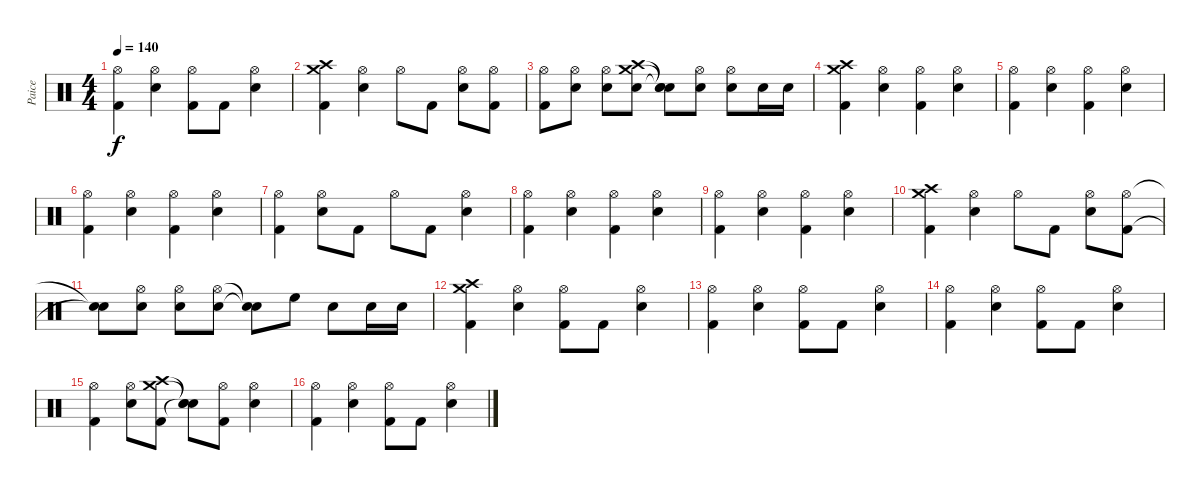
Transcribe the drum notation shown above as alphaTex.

\track ("Paice" "Paice") {instrument percussion}
\staff {score}
\articulation defaults
\ts (4 4)
\tempo 140
\clef neutral
\ks c
("Hi-Hat (open)" "Kick (hit) 2").4{dy f} ("Hi-Hat (open)" "Electric Snare (hit)").4 ("Hi-Hat (open)" "Kick (hit) 2").8 "Kick (hit) 2".8 ("Hi-Hat (open)" "Electric Snare (hit)").4 |
("Crash high (hit)" "Crash medium (hit)" "Kick (hit) 2").4 ("Hi-Hat (open)" "Electric Snare (hit)").4 "Hi-Hat (open)".8 "Kick (hit) 2".8 ("Hi-Hat (open)" "Electric Snare (hit)").8 ("Hi-Hat (open)" "Kick (hit) 2").8 |
("Hi-Hat (open)" "Kick (hit) 2").8 ("Hi-Hat (open)" "Electric Snare (hit)").8 ("Hi-Hat (open)" "Electric Snare (hit)").8 ("Crash high (hit)" "Crash medium (hit)" "Electric Snare (hit)").8 ("Snare (hit)"{t} "Snare (hit)"{t} "Snare (hit)"{t}).8 ("Hi-Hat (open)" "Electric Snare (hit)").8 ("Hi-Hat (open)" "Electric Snare (hit)").8 "Electric Snare (hit)".16 "Electric Snare (hit)".16 |
("Crash high (hit)" "Crash medium (hit)" "Kick (hit) 2").4 ("Hi-Hat (open)" "Electric Snare (hit)").4 ("Hi-Hat (open)" "Kick (hit) 2").4 ("Hi-Hat (open)" "Electric Snare (hit)").4 |
("Hi-Hat (open)" "Kick (hit) 2").4 ("Hi-Hat (open)" "Electric Snare (hit)").4 ("Hi-Hat (open)" "Kick (hit) 2").4 ("Hi-Hat (open)" "Electric Snare (hit)").4 |
("Hi-Hat (open)" "Kick (hit) 2").4 ("Hi-Hat (open)" "Electric Snare (hit)").4 ("Hi-Hat (open)" "Kick (hit) 2").4 ("Hi-Hat (open)" "Electric Snare (hit)").4 |
("Hi-Hat (open)" "Kick (hit) 2").4 ("Hi-Hat (open)" "Electric Snare (hit)").8 "Kick (hit) 2".8 "Hi-Hat (open)".8 "Kick (hit) 2".8 ("Hi-Hat (open)" "Electric Snare (hit)").4 |
("Hi-Hat (open)" "Kick (hit) 2").4 ("Hi-Hat (open)" "Electric Snare (hit)").4 ("Hi-Hat (open)" "Kick (hit) 2").4 ("Hi-Hat (open)" "Electric Snare (hit)").4 |
("Hi-Hat (open)" "Kick (hit) 2").4 ("Hi-Hat (open)" "Electric Snare (hit)").4 ("Hi-Hat (open)" "Kick (hit) 2").4 ("Hi-Hat (open)" "Electric Snare (hit)").4 |
("Crash high (hit)" "Crash medium (hit)" "Kick (hit) 2").4 ("Hi-Hat (open)" "Electric Snare (hit)").4 "Hi-Hat (open)".8 "Kick (hit) 2".8 ("Hi-Hat (open)" "Electric Snare (hit)").8 ("Hi-Hat (open)" "Kick (hit) 2").8 |
("Snare (hit)"{t} "Snare (hit)"{t}).8 ("Hi-Hat (open)" "Electric Snare (hit)").8 ("Hi-Hat (open)" "Electric Snare (hit)").8 ("Hi-Hat (open)" "Electric Snare (hit)").8 ("Snare (hit)"{t} "Snare (hit)"{t}).8 "High Floor Tom (hit)".8 "Electric Snare (hit)".8 "Electric Snare (hit)".16 "Electric Snare (hit)".16 |
("Crash high (hit)" "Crash medium (hit)" "Kick (hit) 2").4 ("Hi-Hat (open)" "Electric Snare (hit)").4 ("Hi-Hat (open)" "Kick (hit) 2").8 "Kick (hit) 2".8 ("Hi-Hat (open)" "Electric Snare (hit)").4 |
("Hi-Hat (open)" "Kick (hit) 2").4 ("Hi-Hat (open)" "Electric Snare (hit)").4 ("Hi-Hat (open)" "Kick (hit) 2").8 "Kick (hit) 2".8 ("Hi-Hat (open)" "Electric Snare (hit)").4 |
("Hi-Hat (open)" "Kick (hit) 2").4 ("Hi-Hat (open)" "Electric Snare (hit)").4 ("Hi-Hat (open)" "Kick (hit) 2").8 "Kick (hit) 2".8 ("Hi-Hat (open)" "Electric Snare (hit)").4 |
("Hi-Hat (open)" "Kick (hit) 2").4 ("Hi-Hat (open)" "Electric Snare (hit)").8 ("Crash high (hit)" "Crash medium (hit)" "Kick (hit) 2").8 ("Snare (hit)"{t} "Snare (hit)"{t} "Snare (hit)"{t}).8 ("Hi-Hat (open)" "Kick (hit) 2").8 ("Hi-Hat (open)" "Electric Snare (hit)").4 |
("Hi-Hat (open)" "Kick (hit) 2").4 ("Hi-Hat (open)" "Electric Snare (hit)").4 ("Hi-Hat (open)" "Kick (hit) 2").8 "Kick (hit) 2".8 ("Hi-Hat (open)" "Electric Snare (hit)").4
